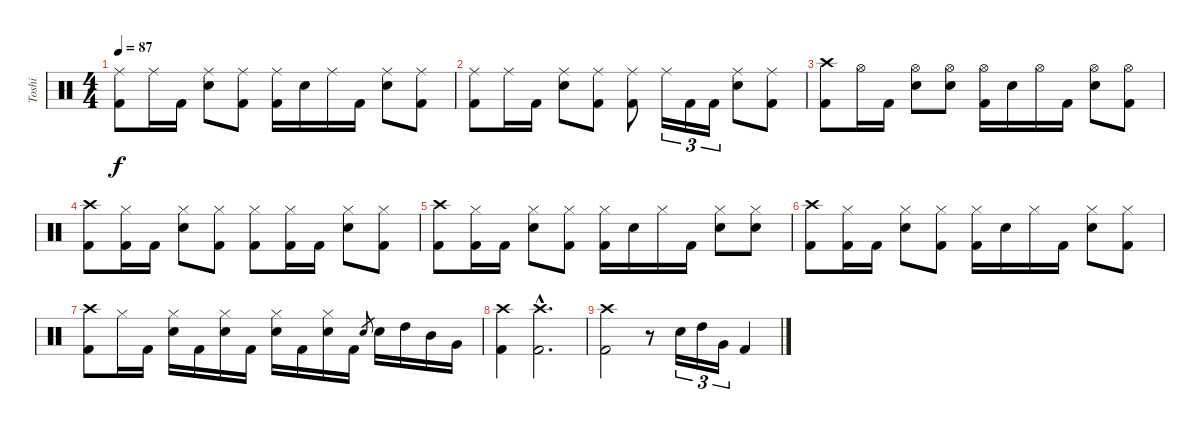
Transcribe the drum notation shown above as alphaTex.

\track ("Toshi" "Toshi") {instrument percussion}
\staff {score}
\articulation defaults
\ts (4 4)
\tempo 87
\clef neutral
\ks c
("Ride (middle)" "Kick (hit) 2").8{dy f} "Ride (middle)".16 "Kick (hit) 2".16 ("Ride (middle)" "Snare (hit) 2").8 ("Ride (middle)" "Kick (hit) 2").8 ("Ride (middle)" "Kick (hit) 2").16 "Snare (hit) 2".16 "Ride (middle)".16 "Kick (hit) 2".16 ("Ride (middle)" "Snare (hit) 2").8 ("Ride (middle)" "Kick (hit) 2").8 |
("Ride (middle)" "Kick (hit) 2").8 "Ride (middle)".16 "Kick (hit) 2".16 ("Ride (middle)" "Snare (hit) 2").8 ("Ride (middle)" "Kick (hit) 2").8 ("Ride (middle)" "Kick (hit) 2").8 "Ride (middle)".16{tu (3 2)} "Kick (hit) 2".16{tu (3 2)} "Kick (hit) 2".16{tu (3 2)} ("Ride (middle)" "Snare (hit) 2").8 ("Ride (middle)" "Kick (hit) 2").8 |
("Crash high (hit)" "Kick (hit) 2").8 "Hi-Hat (open)".16 "Kick (hit) 2".16 ("Hi-Hat (open)" "Snare (hit) 2").8 ("Hi-Hat (open)" "Snare (hit) 2").8 ("Hi-Hat (open)" "Kick (hit) 2").16 "Snare (hit) 2".16 "Hi-Hat (open)".16 "Kick (hit) 2".16 ("Hi-Hat (open)" "Snare (hit) 2").8 ("Hi-Hat (open)" "Kick (hit) 2").8 |
("Crash high (hit)" "Kick (hit) 2").8 ("Hi-Hat (closed)" "Kick (hit) 2").16 "Kick (hit) 2".16 ("Hi-Hat (closed)" "Snare (hit) 2").8 ("Hi-Hat (closed)" "Kick (hit) 2").8 ("Hi-Hat (closed)" "Kick (hit) 2").8 ("Hi-Hat (closed)" "Kick (hit) 2").16 "Kick (hit) 2".16 ("Hi-Hat (closed)" "Snare (hit) 2").8 ("Hi-Hat (closed)" "Kick (hit) 2").8 |
("Crash high (hit)" "Kick (hit) 2").8 ("Hi-Hat (closed)" "Kick (hit) 2").16 "Kick (hit) 2".16 ("Hi-Hat (closed)" "Snare (hit) 2").8 ("Hi-Hat (closed)" "Kick (hit) 2").8 ("Hi-Hat (closed)" "Kick (hit) 2").16 "Snare (hit) 2".16 "Hi-Hat (closed)".16 "Kick (hit) 2".16 ("Hi-Hat (closed)" "Snare (hit) 2").8 ("Hi-Hat (closed)" "Snare (hit) 2").8 |
("Crash high (hit)" "Kick (hit) 2").8 ("Hi-Hat (closed)" "Kick (hit) 2").16 "Kick (hit) 2".16 ("Hi-Hat (closed)" "Snare (hit) 2").8 ("Hi-Hat (closed)" "Kick (hit) 2").8 ("Hi-Hat (closed)" "Kick (hit) 2").16 "Snare (hit) 2".16 "Hi-Hat (closed)".16 "Kick (hit) 2".16 ("Hi-Hat (closed)" "Snare (hit) 2").8 ("Hi-Hat (closed)" "Kick (hit) 2").8 |
("Crash high (hit)" "Kick (hit) 2").8 "Hi-Hat (closed)".16 "Kick (hit) 2".16 ("Hi-Hat (closed)" "Snare (hit) 2").16 "Kick (hit) 2".16 ("Hi-Hat (closed)" "Snare (hit) 2").16 "Kick (hit) 2".16 ("Hi-Hat (closed)" "Snare (hit) 2").16 "Kick (hit) 2".16 ("Hi-Hat (closed)" "Snare (hit) 2").16 "Kick (hit) 2".16 "Snare (hit) 2".8{gr} "Snare (hit) 2".16 "High Tom (hit)".16 "Mid Tom (hit)".16 "Very Low Tom (hit)".16 |
("Crash high (hit)" "Kick (hit) 2").4 ("Crash high (hit)"{hac} "Kick (hit) 2"{hac}).2{d} |
("Crash high (hit)" "Kick (hit) 2").2 r.8 "Snare (hit) 2".16{tu (3 2)} "High Tom (hit)".16{tu (3 2)} "Very Low Tom (hit)".16{tu (3 2)} "Kick (hit) 2".4
